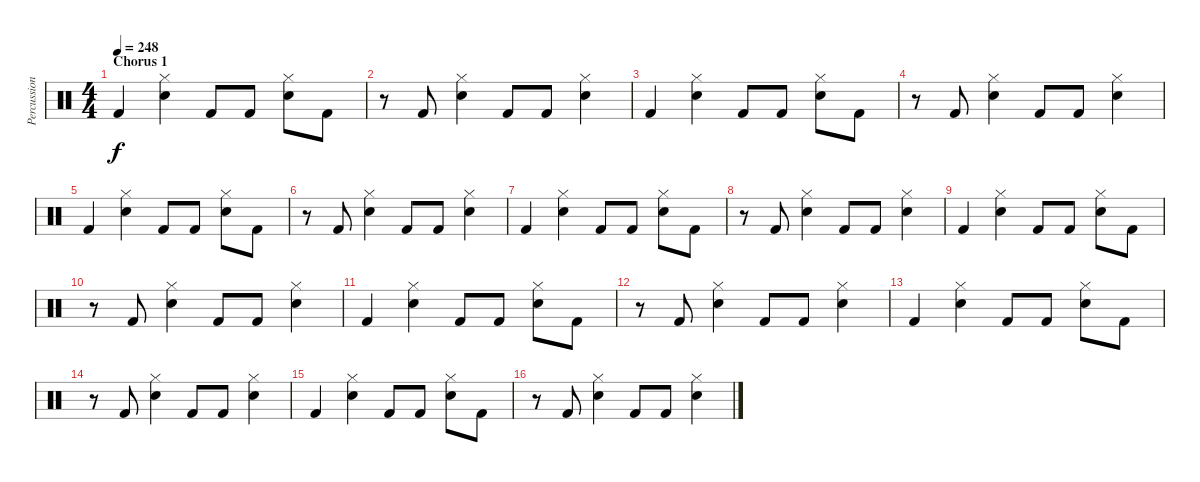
\track ("Percussion" "Percussion") {instrument percussion}
\staff {score}
\articulation defaults
\ts (4 4)
\section ("" "Chorus 1")
\tempo 248
\clef neutral
\ks c "Kick (hit) 2".4{dy f}
("Hi-Hat (closed)" "Snare (hit) 2").4 "Kick (hit) 2".8 "Kick (hit) 2".8 ("Hi-Hat (closed)" "Snare (hit) 2").8 "Kick (hit) 2".8 |
r.8 "Kick (hit) 2".8 ("Hi-Hat (closed)" "Snare (hit) 2").4 "Kick (hit) 2".8 "Kick (hit) 2".8 ("Hi-Hat (closed)" "Snare (hit) 2").4 |
"Kick (hit) 2".4 ("Hi-Hat (closed)" "Snare (hit) 2").4 "Kick (hit) 2".8 "Kick (hit) 2".8 ("Hi-Hat (closed)" "Snare (hit) 2").8 "Kick (hit) 2".8 |
r.8 "Kick (hit) 2".8 ("Hi-Hat (closed)" "Snare (hit) 2").4 "Kick (hit) 2".8 "Kick (hit) 2".8 ("Hi-Hat (closed)" "Snare (hit) 2").4 |
"Kick (hit) 2".4 ("Hi-Hat (closed)" "Snare (hit) 2").4 "Kick (hit) 2".8 "Kick (hit) 2".8 ("Hi-Hat (closed)" "Snare (hit) 2").8 "Kick (hit) 2".8 |
r.8 "Kick (hit) 2".8 ("Hi-Hat (closed)" "Snare (hit) 2").4 "Kick (hit) 2".8 "Kick (hit) 2".8 ("Hi-Hat (closed)" "Snare (hit) 2").4 |
"Kick (hit) 2".4 ("Hi-Hat (closed)" "Snare (hit) 2").4 "Kick (hit) 2".8 "Kick (hit) 2".8 ("Hi-Hat (closed)" "Snare (hit) 2").8 "Kick (hit) 2".8 |
r.8 "Kick (hit) 2".8 ("Hi-Hat (closed)" "Snare (hit) 2").4 "Kick (hit) 2".8 "Kick (hit) 2".8 ("Hi-Hat (closed)" "Snare (hit) 2").4 |
"Kick (hit) 2".4 ("Hi-Hat (closed)" "Snare (hit) 2").4 "Kick (hit) 2".8 "Kick (hit) 2".8 ("Hi-Hat (closed)" "Snare (hit) 2").8 "Kick (hit) 2".8 |
r.8 "Kick (hit) 2".8 ("Hi-Hat (closed)" "Snare (hit) 2").4 "Kick (hit) 2".8 "Kick (hit) 2".8 ("Hi-Hat (closed)" "Snare (hit) 2").4 |
"Kick (hit) 2".4 ("Hi-Hat (closed)" "Snare (hit) 2").4 "Kick (hit) 2".8 "Kick (hit) 2".8 ("Hi-Hat (closed)" "Snare (hit) 2").8 "Kick (hit) 2".8 |
r.8 "Kick (hit) 2".8 ("Hi-Hat (closed)" "Snare (hit) 2").4 "Kick (hit) 2".8 "Kick (hit) 2".8 ("Hi-Hat (closed)" "Snare (hit) 2").4 |
"Kick (hit) 2".4 ("Hi-Hat (closed)" "Snare (hit) 2").4 "Kick (hit) 2".8 "Kick (hit) 2".8 ("Hi-Hat (closed)" "Snare (hit) 2").8 "Kick (hit) 2".8 |
r.8 "Kick (hit) 2".8 ("Hi-Hat (closed)" "Snare (hit) 2").4 "Kick (hit) 2".8 "Kick (hit) 2".8 ("Hi-Hat (closed)" "Snare (hit) 2").4 |
"Kick (hit) 2".4 ("Hi-Hat (closed)" "Snare (hit) 2").4 "Kick (hit) 2".8 "Kick (hit) 2".8 ("Hi-Hat (closed)" "Snare (hit) 2").8 "Kick (hit) 2".8 |
r.8 "Kick (hit) 2".8 ("Hi-Hat (closed)" "Snare (hit) 2").4 "Kick (hit) 2".8 "Kick (hit) 2".8 ("Hi-Hat (closed)" "Snare (hit) 2").4
